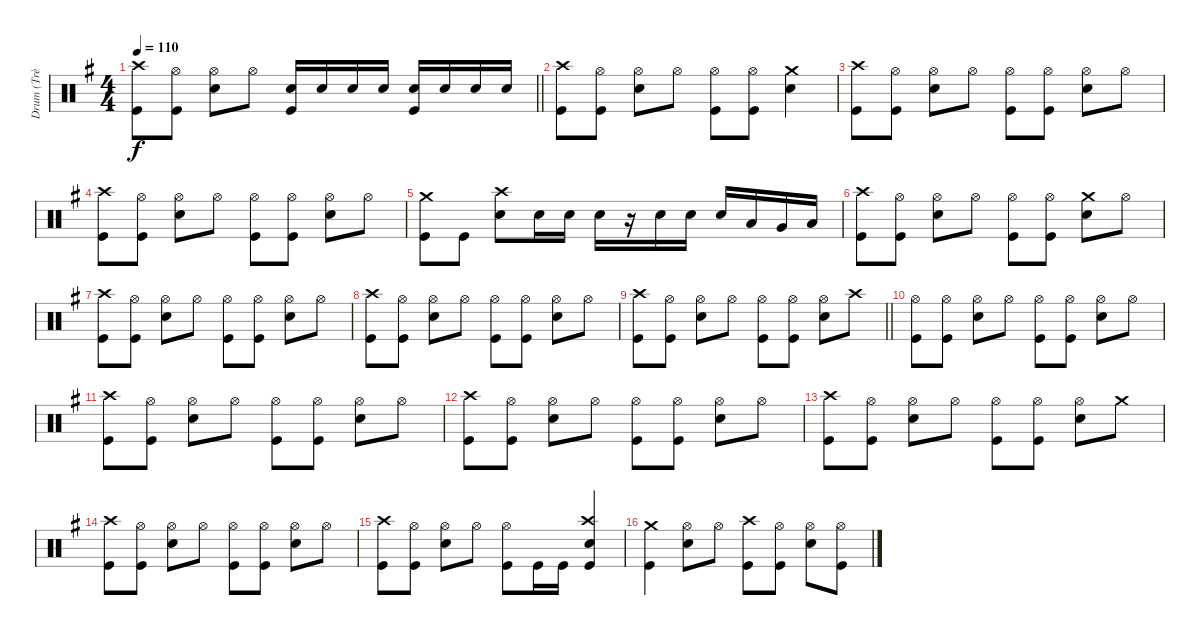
\track ("Drum (Trè Cool)" "Drum (Trè ") {instrument percussion}
\staff {score}
\articulation defaults
\ts (4 4)
\tempo 110
\clef neutral
\barLineRight lightlight
\ks g
("Kick (hit)" "Crash high (hit)").8{dy f} ("Hi-Hat (open)" "Kick (hit)").8 ("Hi-Hat (open)" "Snare (hit) 2").8 "Hi-Hat (open)".8 ("Snare (hit) 2" "Kick (hit)").16 "Snare (hit) 2".16 "Snare (hit) 2".16 "Snare (hit) 2".16 ("Snare (hit) 2" "Kick (hit)").16 "Snare (hit) 2".16 "Snare (hit) 2".16 "Snare (hit) 2".16 |
("Crash high (hit)" "Kick (hit)").8 ("Hi-Hat (open)" "Kick (hit)").8 ("Hi-Hat (open)" "Snare (hit) 2").8 "Hi-Hat (open)".8 ("Hi-Hat (open)" "Kick (hit)").8 ("Hi-Hat (open)" "Kick (hit)").8 ("Crash medium (hit)" "Snare (hit) 2").4 |
("Crash high (hit)" "Kick (hit)").8 ("Hi-Hat (open)" "Kick (hit)").8 ("Hi-Hat (open)" "Snare (hit) 2").8 "Hi-Hat (open)".8 ("Hi-Hat (open)" "Kick (hit)").8 ("Hi-Hat (open)" "Kick (hit)").8 ("Hi-Hat (open)" "Snare (hit) 2").8 "Hi-Hat (open)".8 |
("Crash high (hit)" "Kick (hit)").8 ("Hi-Hat (open)" "Kick (hit)").8 ("Snare (hit) 2" "Hi-Hat (open)").8 "Hi-Hat (open)".8 ("Hi-Hat (open)" "Kick (hit)").8 ("Hi-Hat (open)" "Kick (hit)").8 ("Hi-Hat (open)" "Snare (hit) 2").8 "Hi-Hat (open)".8 |
("Crash medium (hit)" "Kick (hit)").8 "Kick (hit)".8 ("Snare (hit) 2" "Crash high (hit)").8 "Snare (hit) 2".16 "Snare (hit) 2".16 "Snare (hit) 2".16 r.16 "Snare (hit) 2".16 "Snare (hit) 2".16 "Snare (hit) 2".16 "Low Tom (hit)".16 "Very Low Tom (hit)".16 "Low Floor Tom (hit)".16 |
("Crash high (hit)" "Kick (hit)").8 ("Hi-Hat (open)" "Kick (hit)").8 ("Hi-Hat (open)" "Snare (hit) 2").8 "Hi-Hat (open)".8 ("Hi-Hat (open)" "Kick (hit)").8 ("Hi-Hat (open)" "Kick (hit)").8 ("Crash medium (hit)" "Snare (hit) 2").8 "Hi-Hat (open)".8 |
("Crash high (hit)" "Kick (hit)").8 ("Hi-Hat (open)" "Kick (hit)").8 ("Hi-Hat (open)" "Snare (hit) 2").8 "Hi-Hat (open)".8 ("Hi-Hat (open)" "Kick (hit)").8 ("Hi-Hat (open)" "Kick (hit)").8 ("Hi-Hat (open)" "Snare (hit) 2").8 "Hi-Hat (open)".8 |
("Crash high (hit)" "Kick (hit)").8 ("Hi-Hat (open)" "Kick (hit)").8 ("Snare (hit) 2" "Hi-Hat (open)").8 "Hi-Hat (open)".8 ("Hi-Hat (open)" "Kick (hit)").8 ("Hi-Hat (open)" "Kick (hit)").8 ("Hi-Hat (open)" "Snare (hit) 2").8 "Hi-Hat (open)".8 |
\barLineRight lightlight
("Crash high (hit)" "Kick (hit)").8 ("Hi-Hat (open)" "Kick (hit)").8 ("Hi-Hat (open)" "Snare (hit) 2").8 "Hi-Hat (open)".8 ("Hi-Hat (open)" "Kick (hit)").8 ("Hi-Hat (open)" "Kick (hit)").8 ("Hi-Hat (open)" "Snare (hit) 2").8 "Crash high (hit)".8 |
("Hi-Hat (open)" "Kick (hit)").8 ("Hi-Hat (open)" "Kick (hit)").8 ("Hi-Hat (open)" "Snare (hit) 2").8 "Hi-Hat (open)".8 ("Hi-Hat (open)" "Kick (hit)").8 ("Hi-Hat (open)" "Kick (hit)").8 ("Snare (hit) 2" "Hi-Hat (open)").8 "Hi-Hat (open)".8 |
("Crash high (hit)" "Kick (hit)").8 ("Kick (hit)" "Hi-Hat (open)").8 ("Hi-Hat (open)" "Snare (hit) 2").8 "Hi-Hat (open)".8 ("Hi-Hat (open)" "Kick (hit)").8 ("Hi-Hat (open)" "Kick (hit)").8 ("Hi-Hat (open)" "Snare (hit) 2").8 "Hi-Hat (open)".8 |
("Crash high (hit)" "Kick (hit)").8 ("Hi-Hat (open)" "Kick (hit)").8 ("Hi-Hat (open)" "Snare (hit) 2").8 "Hi-Hat (open)".8 ("Hi-Hat (open)" "Kick (hit)").8 ("Kick (hit)" "Hi-Hat (open)").8 ("Hi-Hat (open)" "Snare (hit) 2").8 "Hi-Hat (open)".8 |
("Crash high (hit)" "Kick (hit)").8 ("Hi-Hat (open)" "Kick (hit)").8 ("Hi-Hat (open)" "Snare (hit) 2").8 "Hi-Hat (open)".8 ("Hi-Hat (open)" "Kick (hit)").8 ("Hi-Hat (open)" "Kick (hit)").8 ("Hi-Hat (open)" "Snare (hit) 2").8 "Crash medium (hit)".8 |
("Kick (hit)" "Crash high (hit)").8 ("Hi-Hat (open)" "Kick (hit)").8 ("Hi-Hat (open)" "Snare (hit) 2").8 "Hi-Hat (open)".8 ("Kick (hit)" "Hi-Hat (open)").8 ("Kick (hit)" "Hi-Hat (open)").8 ("Snare (hit) 2" "Hi-Hat (open)").8 "Hi-Hat (open)".8 |
("Crash high (hit)" "Kick (hit)").8 ("Hi-Hat (open)" "Kick (hit)").8 ("Hi-Hat (open)" "Snare (hit) 2").8 "Hi-Hat (open)".8 ("Hi-Hat (open)" "Kick (hit)").8 "Kick (hit)".16 "Kick (hit)".16 ("Kick (hit)" "Snare (hit) 2" "Crash high (hit)").4 |
("Crash medium (hit)" "Kick (hit)").4 ("Hi-Hat (open)" "Snare (hit) 2").8 "Hi-Hat (open)".8 ("Crash high (hit)" "Kick (hit)").8 ("Hi-Hat (open)" "Kick (hit)").8 ("Hi-Hat (open)" "Snare (hit) 2").8 ("Hi-Hat (open)" "Kick (hit)").8
